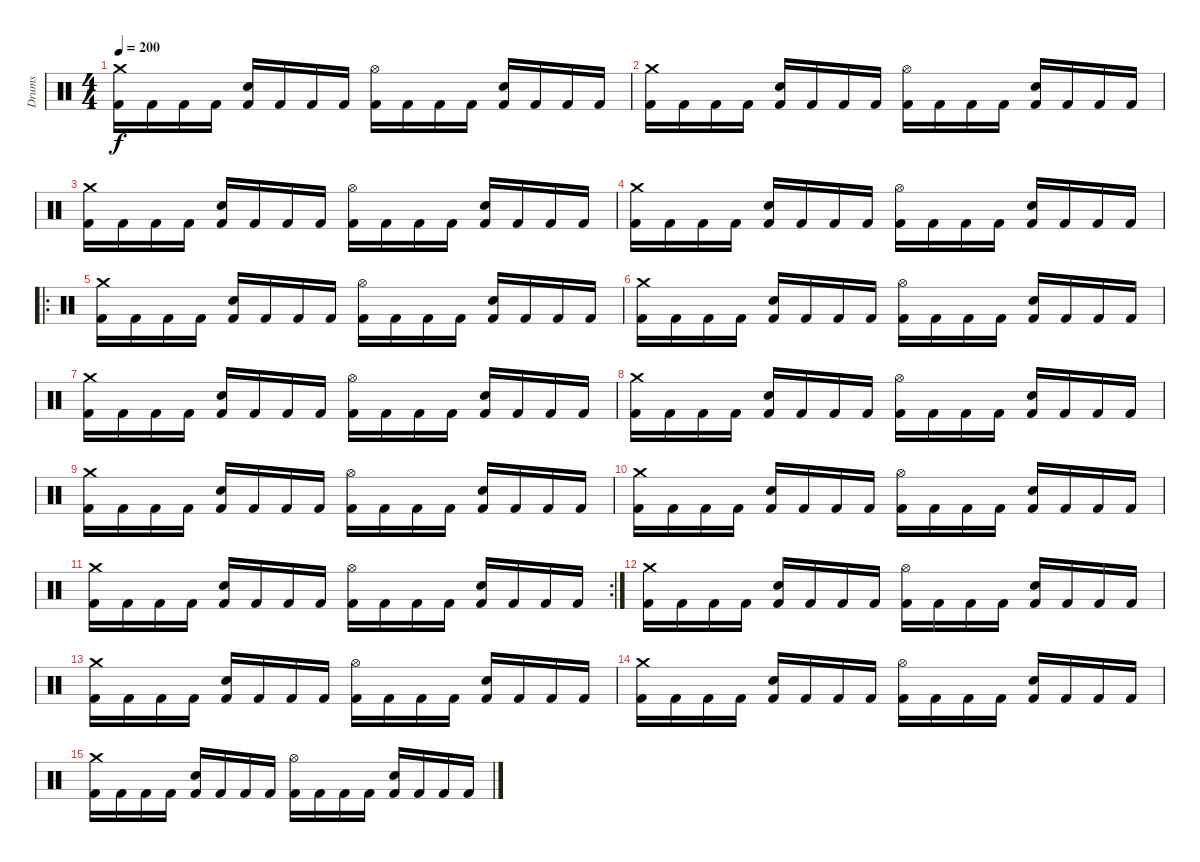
\track ("Drums" "Drums") {instrument percussion}
\staff {score}
\articulation defaults
\ts (4 4)
\tempo 200
\clef neutral
\ks c
("Kick (hit) 2" "Crash medium (hit)").16{dy f} "Kick (hit) 2".16 "Kick (hit) 2".16 "Kick (hit) 2".16 ("Kick (hit) 2" "Snare (hit) 2").16 "Kick (hit) 2".16 "Kick (hit) 2".16 "Kick (hit) 2".16 ("Kick (hit) 2" "Hi-Hat (open)").16 "Kick (hit) 2".16 "Kick (hit) 2".16 "Kick (hit) 2".16 ("Kick (hit) 2" "Snare (hit) 2").16 "Kick (hit) 2".16 "Kick (hit) 2".16 "Kick (hit) 2".16 |
("Kick (hit) 2" "Crash medium (hit)").16 "Kick (hit) 2".16 "Kick (hit) 2".16 "Kick (hit) 2".16 ("Kick (hit) 2" "Snare (hit) 2").16 "Kick (hit) 2".16 "Kick (hit) 2".16 "Kick (hit) 2".16 ("Kick (hit) 2" "Hi-Hat (open)").16 "Kick (hit) 2".16 "Kick (hit) 2".16 "Kick (hit) 2".16 ("Kick (hit) 2" "Snare (hit) 2").16 "Kick (hit) 2".16 "Kick (hit) 2".16 "Kick (hit) 2".16 |
("Kick (hit) 2" "Crash medium (hit)").16 "Kick (hit) 2".16 "Kick (hit) 2".16 "Kick (hit) 2".16 ("Kick (hit) 2" "Snare (hit) 2").16 "Kick (hit) 2".16 "Kick (hit) 2".16 "Kick (hit) 2".16 ("Kick (hit) 2" "Hi-Hat (open)").16 "Kick (hit) 2".16 "Kick (hit) 2".16 "Kick (hit) 2".16 ("Kick (hit) 2" "Snare (hit) 2").16 "Kick (hit) 2".16 "Kick (hit) 2".16 "Kick (hit) 2".16 |
("Kick (hit) 2" "Crash medium (hit)").16 "Kick (hit) 2".16 "Kick (hit) 2".16 "Kick (hit) 2".16 ("Kick (hit) 2" "Snare (hit) 2").16 "Kick (hit) 2".16 "Kick (hit) 2".16 "Kick (hit) 2".16 ("Kick (hit) 2" "Hi-Hat (open)").16 "Kick (hit) 2".16 "Kick (hit) 2".16 "Kick (hit) 2".16 ("Kick (hit) 2" "Snare (hit) 2").16 "Kick (hit) 2".16 "Kick (hit) 2".16 "Kick (hit) 2".16 |
\ro
("Kick (hit) 2" "Crash medium (hit)").16{volume 13} "Kick (hit) 2".16 "Kick (hit) 2".16 "Kick (hit) 2".16 ("Kick (hit) 2" "Snare (hit) 2").16 "Kick (hit) 2".16 "Kick (hit) 2".16 "Kick (hit) 2".16 ("Kick (hit) 2" "Hi-Hat (open)").16 "Kick (hit) 2".16 "Kick (hit) 2".16 "Kick (hit) 2".16 ("Kick (hit) 2" "Snare (hit) 2").16 "Kick (hit) 2".16 "Kick (hit) 2".16 "Kick (hit) 2".16 |
("Kick (hit) 2" "Crash medium (hit)").16 "Kick (hit) 2".16 "Kick (hit) 2".16 "Kick (hit) 2".16 ("Kick (hit) 2" "Snare (hit) 2").16 "Kick (hit) 2".16 "Kick (hit) 2".16 "Kick (hit) 2".16 ("Kick (hit) 2" "Hi-Hat (open)").16 "Kick (hit) 2".16 "Kick (hit) 2".16 "Kick (hit) 2".16 ("Kick (hit) 2" "Snare (hit) 2").16 "Kick (hit) 2".16 "Kick (hit) 2".16 "Kick (hit) 2".16 |
("Kick (hit) 2" "Crash medium (hit)").16 "Kick (hit) 2".16 "Kick (hit) 2".16 "Kick (hit) 2".16 ("Kick (hit) 2" "Snare (hit) 2").16 "Kick (hit) 2".16 "Kick (hit) 2".16 "Kick (hit) 2".16 ("Kick (hit) 2" "Hi-Hat (open)").16 "Kick (hit) 2".16 "Kick (hit) 2".16 "Kick (hit) 2".16 ("Kick (hit) 2" "Snare (hit) 2").16 "Kick (hit) 2".16 "Kick (hit) 2".16 "Kick (hit) 2".16 |
("Kick (hit) 2" "Crash medium (hit)").16 "Kick (hit) 2".16 "Kick (hit) 2".16 "Kick (hit) 2".16 ("Kick (hit) 2" "Snare (hit) 2").16 "Kick (hit) 2".16 "Kick (hit) 2".16 "Kick (hit) 2".16 ("Kick (hit) 2" "Hi-Hat (open)").16 "Kick (hit) 2".16 "Kick (hit) 2".16 "Kick (hit) 2".16 ("Kick (hit) 2" "Snare (hit) 2").16 "Kick (hit) 2".16 "Kick (hit) 2".16 "Kick (hit) 2".16 |
("Kick (hit) 2" "Crash medium (hit)").16 "Kick (hit) 2".16 "Kick (hit) 2".16 "Kick (hit) 2".16 ("Kick (hit) 2" "Snare (hit) 2").16 "Kick (hit) 2".16 "Kick (hit) 2".16 "Kick (hit) 2".16 ("Kick (hit) 2" "Hi-Hat (open)").16 "Kick (hit) 2".16 "Kick (hit) 2".16 "Kick (hit) 2".16 ("Kick (hit) 2" "Snare (hit) 2").16 "Kick (hit) 2".16 "Kick (hit) 2".16 "Kick (hit) 2".16 |
("Kick (hit) 2" "Crash medium (hit)").16 "Kick (hit) 2".16 "Kick (hit) 2".16 "Kick (hit) 2".16 ("Kick (hit) 2" "Snare (hit) 2").16 "Kick (hit) 2".16 "Kick (hit) 2".16 "Kick (hit) 2".16 ("Kick (hit) 2" "Hi-Hat (open)").16 "Kick (hit) 2".16 "Kick (hit) 2".16 "Kick (hit) 2".16 ("Kick (hit) 2" "Snare (hit) 2").16 "Kick (hit) 2".16 "Kick (hit) 2".16 "Kick (hit) 2".16 |
\rc 2
("Kick (hit) 2" "Crash medium (hit)").16 "Kick (hit) 2".16 "Kick (hit) 2".16 "Kick (hit) 2".16 ("Kick (hit) 2" "Snare (hit) 2").16 "Kick (hit) 2".16 "Kick (hit) 2".16 "Kick (hit) 2".16 ("Kick (hit) 2" "Hi-Hat (open)").16 "Kick (hit) 2".16 "Kick (hit) 2".16 "Kick (hit) 2".16 ("Kick (hit) 2" "Snare (hit) 2").16 "Kick (hit) 2".16 "Kick (hit) 2".16 "Kick (hit) 2".16{volume 16} |
("Kick (hit) 2" "Crash medium (hit)").16{volume 0} "Kick (hit) 2".16 "Kick (hit) 2".16 "Kick (hit) 2".16 ("Kick (hit) 2" "Snare (hit) 2").16 "Kick (hit) 2".16 "Kick (hit) 2".16 "Kick (hit) 2".16 ("Kick (hit) 2" "Hi-Hat (open)").16 "Kick (hit) 2".16 "Kick (hit) 2".16 "Kick (hit) 2".16 ("Kick (hit) 2" "Snare (hit) 2").16 "Kick (hit) 2".16 "Kick (hit) 2".16 "Kick (hit) 2".16 |
("Kick (hit) 2" "Crash medium (hit)").16 "Kick (hit) 2".16 "Kick (hit) 2".16 "Kick (hit) 2".16 ("Kick (hit) 2" "Snare (hit) 2").16 "Kick (hit) 2".16 "Kick (hit) 2".16 "Kick (hit) 2".16 ("Kick (hit) 2" "Hi-Hat (open)").16 "Kick (hit) 2".16 "Kick (hit) 2".16 "Kick (hit) 2".16 ("Kick (hit) 2" "Snare (hit) 2").16 "Kick (hit) 2".16 "Kick (hit) 2".16 "Kick (hit) 2".16 |
("Kick (hit) 2" "Crash medium (hit)").16 "Kick (hit) 2".16 "Kick (hit) 2".16 "Kick (hit) 2".16 ("Kick (hit) 2" "Snare (hit) 2").16 "Kick (hit) 2".16 "Kick (hit) 2".16 "Kick (hit) 2".16 ("Kick (hit) 2" "Hi-Hat (open)").16 "Kick (hit) 2".16 "Kick (hit) 2".16 "Kick (hit) 2".16 ("Kick (hit) 2" "Snare (hit) 2").16 "Kick (hit) 2".16 "Kick (hit) 2".16 "Kick (hit) 2".16 |
("Kick (hit) 2" "Crash medium (hit)").16 "Kick (hit) 2".16 "Kick (hit) 2".16 "Kick (hit) 2".16 ("Kick (hit) 2" "Snare (hit) 2").16 "Kick (hit) 2".16 "Kick (hit) 2".16 "Kick (hit) 2".16 ("Kick (hit) 2" "Hi-Hat (open)").16 "Kick (hit) 2".16 "Kick (hit) 2".16 "Kick (hit) 2".16 ("Kick (hit) 2" "Snare (hit) 2").16 "Kick (hit) 2".16 "Kick (hit) 2".16 "Kick (hit) 2".16
